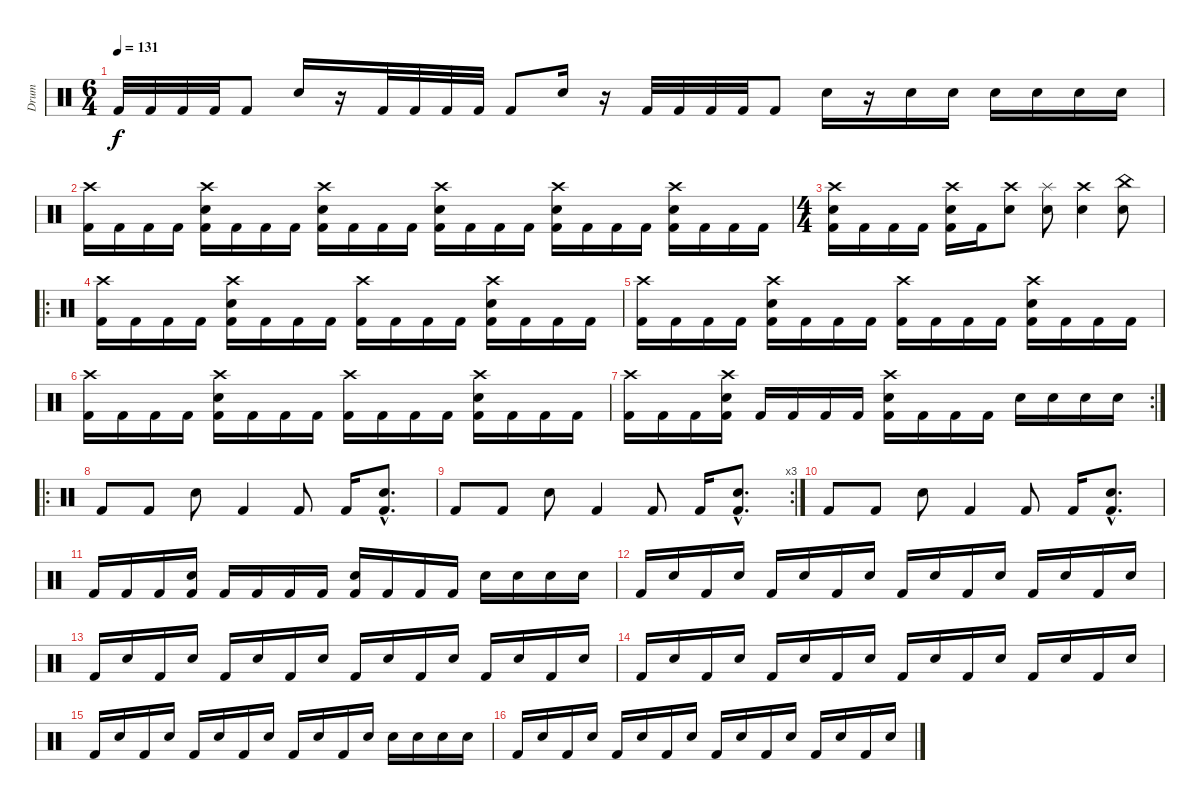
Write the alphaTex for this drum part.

\track ("Drum" "Drum") {instrument percussion}
\staff {score}
\articulation defaults
\ts (6 4)
\tempo 131
\clef neutral
\ks c "Kick (hit) 2".32{dy f} "Kick (hit) 2".32 "Kick (hit) 2".32 "Kick (hit) 2".32 "Kick (hit) 2".8 "Electric Snare (hit)".16
r.16 "Kick (hit) 2".32 "Kick (hit) 2".32 "Kick (hit) 2".32 "Kick (hit) 2".32 "Kick (hit) 2".8 "Electric Snare (hit)".16 r.16 "Kick (hit) 2".32 "Kick (hit) 2".32 "Kick (hit) 2".32 "Kick (hit) 2".32 "Kick (hit) 2".8 "Electric Snare (hit)".16 r.16 "Electric Snare (hit)".16 "Electric Snare (hit)".16 "Electric Snare (hit)".16 "Electric Snare (hit)".16 "Electric Snare (hit)".16 "Electric Snare (hit)".16 |
("Crash high (hit)" "Kick (hit) 2").16 "Kick (hit) 2".16 "Kick (hit) 2".16 "Kick (hit) 2".16 ("Crash high (hit)" "Electric Snare (hit)" "Kick (hit) 2").16 "Kick (hit) 2".16 "Kick (hit) 2".16 "Kick (hit) 2".16 ("Crash high (hit)" "Electric Snare (hit)" "Kick (hit) 2").16 "Kick (hit) 2".16 "Kick (hit) 2".16 "Kick (hit) 2".16 ("Crash high (hit)" "Electric Snare (hit)" "Kick (hit) 2").16 "Kick (hit) 2".16 "Kick (hit) 2".16 "Kick (hit) 2".16 ("Crash high (hit)" "Electric Snare (hit)" "Kick (hit) 2").16 "Kick (hit) 2".16 "Kick (hit) 2".16 "Kick (hit) 2".16 ("Crash high (hit)" "Electric Snare (hit)" "Kick (hit) 2").16 "Kick (hit) 2".16 "Kick (hit) 2".16 "Kick (hit) 2".16 |
\ts (4 4)
("Crash high (hit)" "Electric Snare (hit)" "Kick (hit) 2").16 "Kick (hit) 2".16 "Kick (hit) 2".16 "Kick (hit) 2".16 ("Crash high (hit)" "Electric Snare (hit)" "Kick (hit) 2").16 "Kick (hit) 2".16 ("Crash high (hit)" "Electric Snare (hit)").8 ("Splash (hit)" "Electric Snare (hit)").8 ("Crash high (hit)" "Electric Snare (hit)").4 ("China (hit)" "Electric Snare (hit)").8 |
\ro
("Crash high (hit)" "Kick (hit) 2").16 "Kick (hit) 2".16 "Kick (hit) 2".16 "Kick (hit) 2".16 ("Crash high (hit)" "Electric Snare (hit)" "Kick (hit) 2").16 "Kick (hit) 2".16 "Kick (hit) 2".16 "Kick (hit) 2".16 ("Crash high (hit)" "Kick (hit) 2").16 "Kick (hit) 2".16 "Kick (hit) 2".16 "Kick (hit) 2".16 ("Crash high (hit)" "Electric Snare (hit)" "Kick (hit) 2").16 "Kick (hit) 2".16 "Kick (hit) 2".16 "Kick (hit) 2".16 |
("Crash high (hit)" "Kick (hit) 2").16 "Kick (hit) 2".16 "Kick (hit) 2".16 "Kick (hit) 2".16 ("Crash high (hit)" "Electric Snare (hit)" "Kick (hit) 2").16 "Kick (hit) 2".16 "Kick (hit) 2".16 "Kick (hit) 2".16 ("Crash high (hit)" "Kick (hit) 2").16 "Kick (hit) 2".16 "Kick (hit) 2".16 "Kick (hit) 2".16 ("Crash high (hit)" "Electric Snare (hit)" "Kick (hit) 2").16 "Kick (hit) 2".16 "Kick (hit) 2".16 "Kick (hit) 2".16 |
("Crash high (hit)" "Kick (hit) 2").16 "Kick (hit) 2".16 "Kick (hit) 2".16 "Kick (hit) 2".16 ("Crash high (hit)" "Electric Snare (hit)" "Kick (hit) 2").16 "Kick (hit) 2".16 "Kick (hit) 2".16 "Kick (hit) 2".16 ("Crash high (hit)" "Kick (hit) 2").16 "Kick (hit) 2".16 "Kick (hit) 2".16 "Kick (hit) 2".16 ("Crash high (hit)" "Electric Snare (hit)" "Kick (hit) 2").16 "Kick (hit) 2".16 "Kick (hit) 2".16 "Kick (hit) 2".16 |
\rc 2
("Crash high (hit)" "Kick (hit) 2").16 "Kick (hit) 2".16 "Kick (hit) 2".16 ("Crash high (hit)" "Electric Snare (hit)" "Kick (hit) 2").16 "Kick (hit) 2".16 "Kick (hit) 2".16 "Kick (hit) 2".16 "Kick (hit) 2".16 ("Crash high (hit)" "Electric Snare (hit)" "Kick (hit) 2").16 "Kick (hit) 2".16 "Kick (hit) 2".16 "Kick (hit) 2".16 "Electric Snare (hit)".16 "Electric Snare (hit)".16 "Electric Snare (hit)".16 "Electric Snare (hit)".16 |
\ro "Kick (hit) 2".8 "Kick (hit) 2".8 "Electric Snare (hit)".8 "Kick (hit) 2".4 "Kick (hit) 2".8 "Kick (hit) 2".16
("Electric Snare (hit)"{hac} "Kick (hit) 2"{hac}).8{d} |
\rc 3 "Kick (hit) 2".8 "Kick (hit) 2".8 "Electric Snare (hit)".8 "Kick (hit) 2".4 "Kick (hit) 2".8 "Kick (hit) 2".16
("Electric Snare (hit)"{hac} "Kick (hit) 2"{hac}).8{d} |
"Kick (hit) 2".8 "Kick (hit) 2".8 "Electric Snare (hit)".8 "Kick (hit) 2".4 "Kick (hit) 2".8 "Kick (hit) 2".16 ("Electric Snare (hit)"{hac} "Kick (hit) 2"{hac}).8{d} |
"Kick (hit) 2".16 "Kick (hit) 2".16 "Kick (hit) 2".16 ("Electric Snare (hit)" "Kick (hit) 2").16 "Kick (hit) 2".16 "Kick (hit) 2".16 "Kick (hit) 2".16 "Kick (hit) 2".16 ("Electric Snare (hit)" "Kick (hit) 2").16 "Kick (hit) 2".16 "Kick (hit) 2".16 "Kick (hit) 2".16 "Electric Snare (hit)".16 "Electric Snare (hit)".16 "Electric Snare (hit)".16 "Electric Snare (hit)".16 |
"Kick (hit) 2".16 "Electric Snare (hit)".16 "Kick (hit) 2".16 "Electric Snare (hit)".16 "Kick (hit) 2".16 "Electric Snare (hit)".16 "Kick (hit) 2".16 "Electric Snare (hit)".16 "Kick (hit) 2".16 "Electric Snare (hit)".16 "Kick (hit) 2".16 "Electric Snare (hit)".16 "Kick (hit) 2".16 "Electric Snare (hit)".16 "Kick (hit) 2".16 "Electric Snare (hit)".16 |
"Kick (hit) 2".16 "Electric Snare (hit)".16 "Kick (hit) 2".16 "Electric Snare (hit)".16 "Kick (hit) 2".16 "Electric Snare (hit)".16 "Kick (hit) 2".16 "Electric Snare (hit)".16 "Kick (hit) 2".16 "Electric Snare (hit)".16 "Kick (hit) 2".16 "Electric Snare (hit)".16 "Kick (hit) 2".16 "Electric Snare (hit)".16 "Kick (hit) 2".16 "Electric Snare (hit)".16 |
"Kick (hit) 2".16 "Electric Snare (hit)".16 "Kick (hit) 2".16 "Electric Snare (hit)".16 "Kick (hit) 2".16 "Electric Snare (hit)".16 "Kick (hit) 2".16 "Electric Snare (hit)".16 "Kick (hit) 2".16 "Electric Snare (hit)".16 "Kick (hit) 2".16 "Electric Snare (hit)".16 "Kick (hit) 2".16 "Electric Snare (hit)".16 "Kick (hit) 2".16 "Electric Snare (hit)".16 |
"Kick (hit) 2".16 "Electric Snare (hit)".16 "Kick (hit) 2".16 "Electric Snare (hit)".16 "Kick (hit) 2".16 "Electric Snare (hit)".16 "Kick (hit) 2".16 "Electric Snare (hit)".16 "Kick (hit) 2".16 "Electric Snare (hit)".16 "Kick (hit) 2".16 "Electric Snare (hit)".16 "Electric Snare (hit)".16 "Electric Snare (hit)".16 "Electric Snare (hit)".16 "Electric Snare (hit)".16 |
"Kick (hit) 2".16 "Electric Snare (hit)".16 "Kick (hit) 2".16 "Electric Snare (hit)".16 "Kick (hit) 2".16 "Electric Snare (hit)".16 "Kick (hit) 2".16 "Electric Snare (hit)".16 "Kick (hit) 2".16 "Electric Snare (hit)".16 "Kick (hit) 2".16 "Electric Snare (hit)".16 "Kick (hit) 2".16 "Electric Snare (hit)".16 "Kick (hit) 2".16 "Electric Snare (hit)".16
